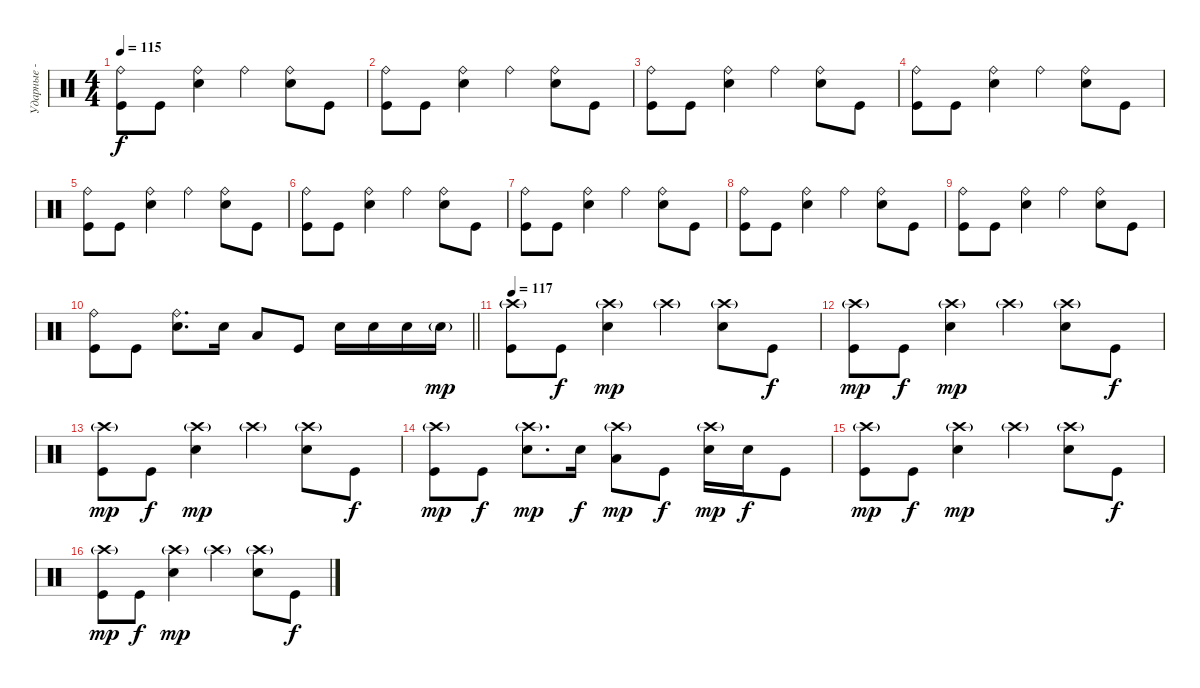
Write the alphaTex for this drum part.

\track ("Ударные - Джек Уайт" "Ударные - ") {instrument percussion}
\staff {score}
\articulation defaults
\ts (4 4)
\tempo 115
\clef neutral
\ks c
("Ride (bell)" "Kick (hit)").8{dy f} "Kick (hit)".8 ("Ride (bell)" "Snare (hit) 2").4 "Ride (bell)".4 ("Ride (bell)" "Snare (hit) 2").8 "Kick (hit)".8 |
("Ride (bell)" "Kick (hit)").8 "Kick (hit)".8 ("Ride (bell)" "Snare (hit) 2").4 "Ride (bell)".4 ("Ride (bell)" "Snare (hit) 2").8 "Kick (hit)".8 |
("Ride (bell)" "Kick (hit)").8 "Kick (hit)".8 ("Ride (bell)" "Snare (hit) 2").4 "Ride (bell)".4 ("Ride (bell)" "Snare (hit) 2").8 "Kick (hit)".8 |
("Ride (bell)" "Kick (hit)").8 "Kick (hit)".8 ("Ride (bell)" "Snare (hit) 2").4 "Ride (bell)".4 ("Ride (bell)" "Snare (hit) 2").8 "Kick (hit)".8 |
("Ride (bell)" "Kick (hit)").8 "Kick (hit)".8 ("Ride (bell)" "Snare (hit) 2").4 "Ride (bell)".4 ("Ride (bell)" "Snare (hit) 2").8 "Kick (hit)".8 |
("Ride (bell)" "Kick (hit)").8 "Kick (hit)".8 ("Ride (bell)" "Snare (hit) 2").4 "Ride (bell)".4 ("Ride (bell)" "Snare (hit) 2").8 "Kick (hit)".8 |
("Ride (bell)" "Kick (hit)").8 "Kick (hit)".8 ("Ride (bell)" "Snare (hit) 2").4 "Ride (bell)".4 ("Ride (bell)" "Snare (hit) 2").8 "Kick (hit)".8 |
("Ride (bell)" "Kick (hit)").8 "Kick (hit)".8 ("Ride (bell)" "Snare (hit) 2").4 "Ride (bell)".4 ("Ride (bell)" "Snare (hit) 2").8 "Kick (hit)".8 |
("Ride (bell)" "Kick (hit)").8 "Kick (hit)".8 ("Ride (bell)" "Snare (hit) 2").4 "Ride (bell)".4 ("Ride (bell)" "Snare (hit) 2").8 "Kick (hit)".8 |
\barLineRight lightlight
("Ride (bell)" "Kick (hit)").8 "Kick (hit)".8 ("Ride (bell)" "Snare (hit) 2").8{d} "Snare (hit) 2".16 "Low Tom (hit)".8 "Kick (hit)".8 "Snare (hit) 2".16 "Snare (hit) 2".16 "Snare (hit) 2".16 "Snare (hit) 2"{g}.16{dy mp} |
\tempo 117
("Crash high (hit)"{g} "Kick (hit)").8 "Kick (hit)".8{dy f} ("Crash high (hit)"{g} "Snare (hit) 2").4{dy mp} "Crash high (hit)"{g}.4 ("Crash high (hit)"{g} "Snare (hit) 2").8 "Kick (hit)".8{dy f} |
("Crash high (hit)"{g} "Kick (hit)").8{dy mp} "Kick (hit)".8{dy f} ("Crash high (hit)"{g} "Snare (hit) 2").4{dy mp} "Crash high (hit)"{g}.4 ("Crash high (hit)"{g} "Snare (hit) 2").8 "Kick (hit)".8{dy f} |
("Crash high (hit)"{g} "Kick (hit)").8{dy mp} "Kick (hit)".8{dy f} ("Crash high (hit)"{g} "Snare (hit) 2").4{dy mp} "Crash high (hit)"{g}.4 ("Crash high (hit)"{g} "Snare (hit) 2").8 "Kick (hit)".8{dy f} |
("Crash high (hit)"{g} "Kick (hit)").8{dy mp} "Kick (hit)".8{dy f} ("Crash high (hit)"{g} "Snare (hit) 2").8{d dy mp} "Snare (hit) 2".16{dy f} ("Crash high (hit)"{g} "Low Tom (hit)").8{dy mp} "Kick (hit)".8{dy f} ("Crash high (hit)"{g} "Snare (hit) 2").16{dy mp} "Snare (hit) 2".16{dy f} "Kick (hit)".8 |
("Crash high (hit)"{g} "Kick (hit)").8{dy mp} "Kick (hit)".8{dy f} ("Crash high (hit)"{g} "Snare (hit) 2").4{dy mp} "Crash high (hit)"{g}.4 ("Crash high (hit)"{g} "Snare (hit) 2").8 "Kick (hit)".8{dy f} |
("Crash high (hit)"{g} "Kick (hit)").8{dy mp} "Kick (hit)".8{dy f} ("Crash high (hit)"{g} "Snare (hit) 2").4{dy mp} "Crash high (hit)"{g}.4 ("Crash high (hit)"{g} "Snare (hit) 2").8 "Kick (hit)".8{dy f}
